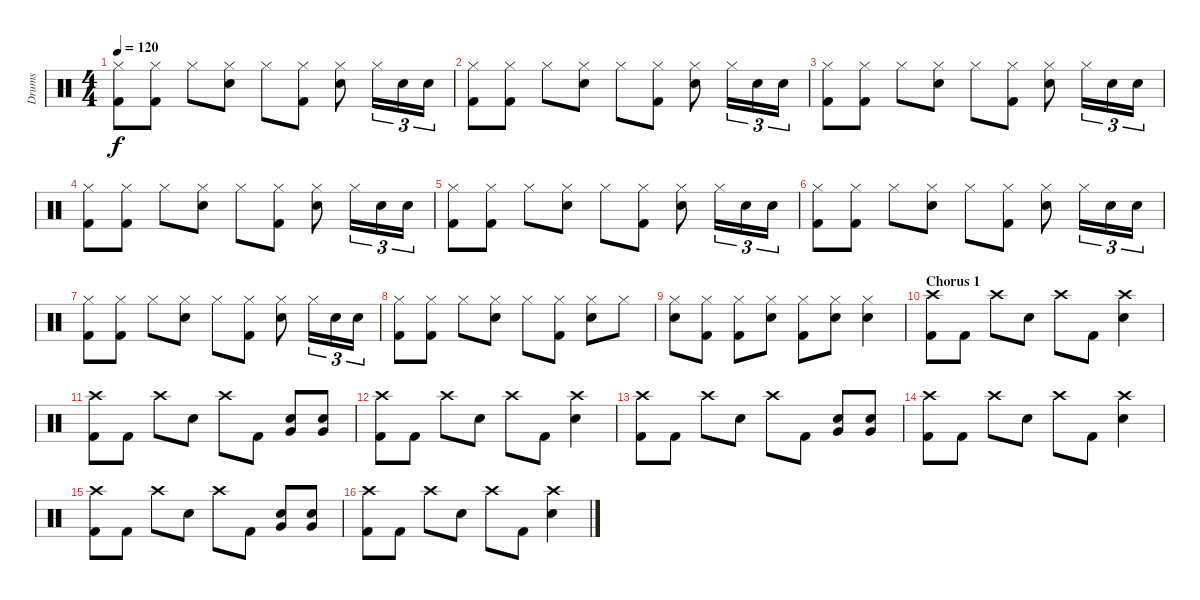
\track ("Drums" "Drums") {instrument percussion}
\staff {score}
\articulation defaults
\ts (4 4)
\tempo 120
\clef neutral
\ks c
("Hi-Hat (closed)" "Kick (hit) 2").8{dy f} ("Hi-Hat (closed)" "Kick (hit) 2").8 "Hi-Hat (closed)".8 ("Hi-Hat (closed)" "Snare (hit) 2").8 "Hi-Hat (closed)".8 ("Hi-Hat (closed)" "Kick (hit) 2").8 ("Hi-Hat (closed)" "Snare (hit) 2").8 "Hi-Hat (closed)".16{tu (3 2)} "Snare (hit) 2".16{tu (3 2)} "Snare (hit) 2".16{tu (3 2)} |
("Hi-Hat (closed)" "Kick (hit) 2").8 ("Hi-Hat (closed)" "Kick (hit) 2").8 "Hi-Hat (closed)".8 ("Hi-Hat (closed)" "Snare (hit) 2").8 "Hi-Hat (closed)".8 ("Hi-Hat (closed)" "Kick (hit) 2").8 ("Hi-Hat (closed)" "Snare (hit) 2").8 "Hi-Hat (closed)".16{tu (3 2)} "Snare (hit) 2".16{tu (3 2)} "Snare (hit) 2".16{tu (3 2)} |
("Hi-Hat (closed)" "Kick (hit) 2").8 ("Hi-Hat (closed)" "Kick (hit) 2").8 "Hi-Hat (closed)".8 ("Hi-Hat (closed)" "Snare (hit) 2").8 "Hi-Hat (closed)".8 ("Hi-Hat (closed)" "Kick (hit) 2").8 ("Hi-Hat (closed)" "Snare (hit) 2").8 "Hi-Hat (closed)".16{tu (3 2)} "Snare (hit) 2".16{tu (3 2)} "Snare (hit) 2".16{tu (3 2)} |
("Hi-Hat (closed)" "Kick (hit) 2").8 ("Hi-Hat (closed)" "Kick (hit) 2").8 "Hi-Hat (closed)".8 ("Hi-Hat (closed)" "Snare (hit) 2").8 "Hi-Hat (closed)".8 ("Hi-Hat (closed)" "Kick (hit) 2").8 ("Hi-Hat (closed)" "Snare (hit) 2").8 "Hi-Hat (closed)".16{tu (3 2)} "Snare (hit) 2".16{tu (3 2)} "Snare (hit) 2".16{tu (3 2)} |
("Hi-Hat (closed)" "Kick (hit) 2").8 ("Hi-Hat (closed)" "Kick (hit) 2").8 "Hi-Hat (closed)".8 ("Hi-Hat (closed)" "Snare (hit) 2").8 "Hi-Hat (closed)".8 ("Hi-Hat (closed)" "Kick (hit) 2").8 ("Hi-Hat (closed)" "Snare (hit) 2").8 "Hi-Hat (closed)".16{tu (3 2)} "Snare (hit) 2".16{tu (3 2)} "Snare (hit) 2".16{tu (3 2)} |
("Hi-Hat (closed)" "Kick (hit) 2").8 ("Hi-Hat (closed)" "Kick (hit) 2").8 "Hi-Hat (closed)".8 ("Hi-Hat (closed)" "Snare (hit) 2").8 "Hi-Hat (closed)".8 ("Hi-Hat (closed)" "Kick (hit) 2").8 ("Hi-Hat (closed)" "Snare (hit) 2").8 "Hi-Hat (closed)".16{tu (3 2)} "Snare (hit) 2".16{tu (3 2)} "Snare (hit) 2".16{tu (3 2)} |
("Hi-Hat (closed)" "Kick (hit) 2").8 ("Hi-Hat (closed)" "Kick (hit) 2").8 "Hi-Hat (closed)".8 ("Hi-Hat (closed)" "Snare (hit) 2").8 "Hi-Hat (closed)".8 ("Hi-Hat (closed)" "Kick (hit) 2").8 ("Hi-Hat (closed)" "Snare (hit) 2").8 "Hi-Hat (closed)".16{tu (3 2)} "Snare (hit) 2".16{tu (3 2)} "Snare (hit) 2".16{tu (3 2)} |
("Hi-Hat (closed)" "Kick (hit) 2").8 ("Hi-Hat (closed)" "Kick (hit) 2").8 "Hi-Hat (closed)".8 ("Hi-Hat (closed)" "Snare (hit) 2").8 "Hi-Hat (closed)".8 ("Hi-Hat (closed)" "Kick (hit) 2").8 ("Hi-Hat (closed)" "Snare (hit) 2").8 "Hi-Hat (closed)".8 |
("Hi-Hat (closed)" "Snare (hit) 2").8 ("Hi-Hat (closed)" "Kick (hit) 2").8 ("Hi-Hat (closed)" "Kick (hit) 2").8 ("Hi-Hat (closed)" "Snare (hit) 2").8 ("Hi-Hat (closed)" "Kick (hit) 2").8 ("Hi-Hat (closed)" "Snare (hit) 2").8 ("Hi-Hat (closed)" "Snare (hit) 2").4 |
\section ("" "Chorus 1")
("Crash high (hit)" "Kick (hit) 2").8 "Kick (hit) 2".8 "Crash high (hit)".8 "Snare (hit) 2".8 "Crash high (hit)".8 "Kick (hit) 2".8 ("Crash high (hit)" "Snare (hit) 2").4 |
("Crash high (hit)" "Kick (hit) 2").8 "Kick (hit) 2".8 "Crash high (hit)".8 "Snare (hit) 2".8 "Crash high (hit)".8 "Kick (hit) 2".8 ("Snare (hit) 2" "Very Low Tom (hit)").8 ("Snare (hit) 2" "Very Low Tom (hit)").8 |
("Crash high (hit)" "Kick (hit) 2").8 "Kick (hit) 2".8 "Crash high (hit)".8 "Snare (hit) 2".8 "Crash high (hit)".8 "Kick (hit) 2".8 ("Crash high (hit)" "Snare (hit) 2").4 |
("Crash high (hit)" "Kick (hit) 2").8 "Kick (hit) 2".8 "Crash high (hit)".8 "Snare (hit) 2".8 "Crash high (hit)".8 "Kick (hit) 2".8 ("Snare (hit) 2" "Very Low Tom (hit)").8 ("Snare (hit) 2" "Very Low Tom (hit)").8 |
("Crash high (hit)" "Kick (hit) 2").8 "Kick (hit) 2".8 "Crash high (hit)".8 "Snare (hit) 2".8 "Crash high (hit)".8 "Kick (hit) 2".8 ("Crash high (hit)" "Snare (hit) 2").4 |
("Crash high (hit)" "Kick (hit) 2").8 "Kick (hit) 2".8 "Crash high (hit)".8 "Snare (hit) 2".8 "Crash high (hit)".8 "Kick (hit) 2".8 ("Snare (hit) 2" "Very Low Tom (hit)").8 ("Snare (hit) 2" "Very Low Tom (hit)").8 |
("Crash high (hit)" "Kick (hit) 2").8 "Kick (hit) 2".8 "Crash high (hit)".8 "Snare (hit) 2".8 "Crash high (hit)".8 "Kick (hit) 2".8 ("Crash high (hit)" "Snare (hit) 2").4
